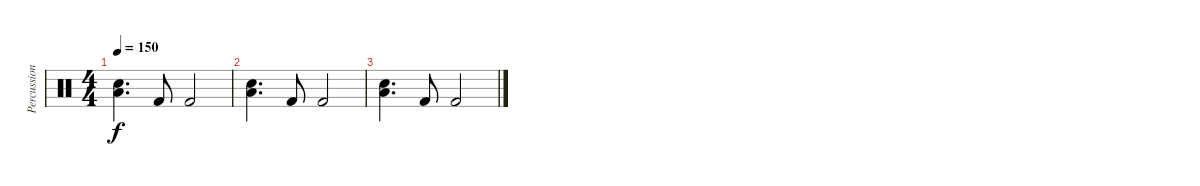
\track ("Percussion" "Percussion") {instrument percussion}
\staff {score}
\articulation defaults
\ts (4 4)
\tempo 150
\clef neutral
\ks c
("Electric Snare (hit)" "Low Floor Tom (hit)").4{d dy f} "Kick (hit) 2".8 "Kick (hit) 2".2 |
("Electric Snare (hit)" "Low Floor Tom (hit)").4{d} "Kick (hit) 2".8 "Kick (hit) 2".2 |
("Electric Snare (hit)" "Low Floor Tom (hit)").4{d} "Kick (hit) 2".8 "Kick (hit) 2".2
